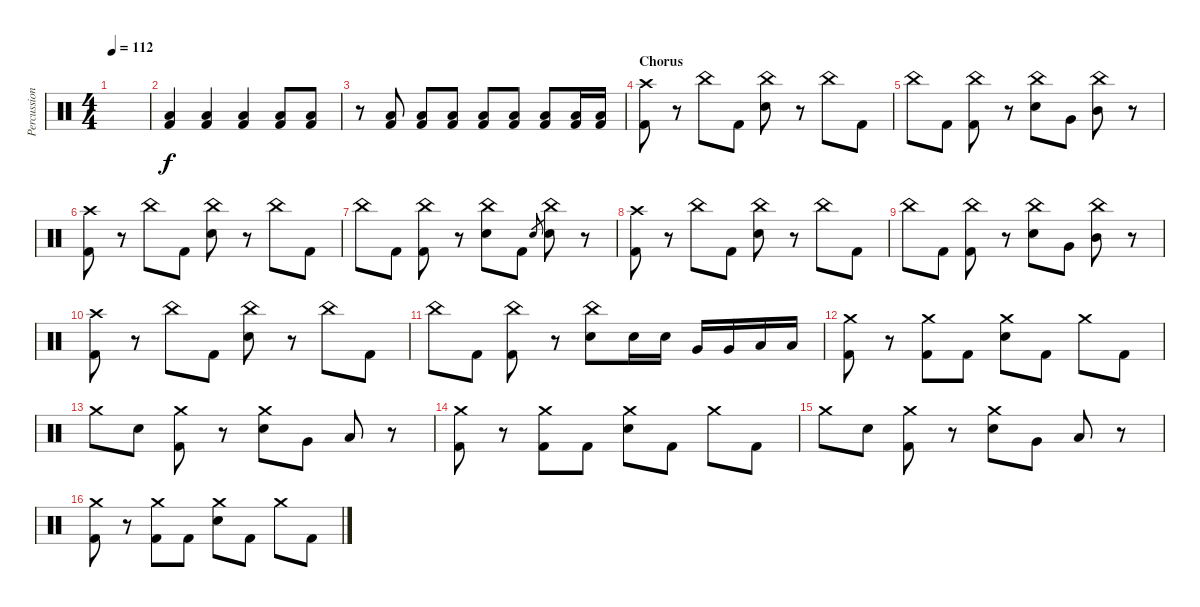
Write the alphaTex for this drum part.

\track ("Percussion" "Percussion") {instrument percussion}
\staff {score}
\articulation defaults
\ts (4 4)
\tempo 112
\clef neutral
\ks c
|
("Low Floor Tom (hit)" "Kick (hit) 2").4 ("Low Floor Tom (hit)" "Kick (hit) 2").4 ("Low Floor Tom (hit)" "Kick (hit) 2").4 ("Low Floor Tom (hit)" "Kick (hit) 2").8 ("Low Floor Tom (hit)" "Kick (hit) 2").8 |
r.8 ("Low Floor Tom (hit)" "Kick (hit) 2").8 ("Low Floor Tom (hit)" "Kick (hit) 2").8 ("Low Floor Tom (hit)" "Kick (hit) 2").8 ("Low Floor Tom (hit)" "Kick (hit) 2").8 ("Low Floor Tom (hit)" "Kick (hit) 2").8 ("Low Floor Tom (hit)" "Kick (hit) 2").8 ("Low Floor Tom (hit)" "Kick (hit) 2").16 ("Low Floor Tom (hit)" "Kick (hit) 2").16 |
\section ("" "Chorus")
("Crash high (hit)" "Kick (hit) 2").8 r.8 "China (hit)".8 "Kick (hit) 2".8 ("China (hit)" "Snare (hit) 2").8 r.8 "China (hit)".8 "Kick (hit) 2".8 |
"China (hit)".8 "Kick (hit) 2".8 ("China (hit)" "Kick (hit) 2").8 r.8 ("China (hit)" "Snare (hit) 2").8 "Very Low Tom (hit)".8 ("China (hit)" "Mid Tom (hit)").8 r.8 |
("Crash high (hit)" "Kick (hit) 2").8 r.8 "China (hit)".8 "Kick (hit) 2".8 ("China (hit)" "Snare (hit) 2").8 r.8 "China (hit)".8 "Kick (hit) 2".8 |
"China (hit)".8 "Kick (hit) 2".8 ("China (hit)" "Kick (hit) 2").8 r.8 ("China (hit)" "Snare (hit) 2").8 "Kick (hit) 2".8 "Snare (hit) 2".8{gr} ("China (hit)" "Snare (hit) 2").8 r.8 |
("Crash high (hit)" "Kick (hit) 2").8 r.8 "China (hit)".8 "Kick (hit) 2".8 ("China (hit)" "Snare (hit) 2").8 r.8 "China (hit)".8 "Kick (hit) 2".8 |
"China (hit)".8 "Kick (hit) 2".8 ("China (hit)" "Kick (hit) 2").8 r.8 ("China (hit)" "Snare (hit) 2").8 "Very Low Tom (hit)".8 ("China (hit)" "Mid Tom (hit)").8 r.8 |
("Crash high (hit)" "Kick (hit) 2").8 r.8 "China (hit)".8 "Kick (hit) 2".8 ("China (hit)" "Snare (hit) 2").8 r.8 "China (hit)".8 "Kick (hit) 2".8 |
"China (hit)".8 "Kick (hit) 2".8 ("China (hit)" "Kick (hit) 2").8 r.8 ("China (hit)" "Snare (hit) 2").8 "Snare (hit) 2".16 "Snare (hit) 2".16 "Very Low Tom (hit)".16 "Very Low Tom (hit)".16 "Low Floor Tom (hit)".16 "Low Floor Tom (hit)".16 |
("Crash medium (hit)" "Kick (hit) 2").8 r.8 ("Crash medium (hit)" "Kick (hit) 2").8 "Kick (hit) 2".8 ("Crash medium (hit)" "Snare (hit) 2").8 "Kick (hit) 2".8 "Crash medium (hit)".8 "Kick (hit) 2".8 |
"Crash medium (hit)".8 "Snare (hit) 2".8 ("Crash medium (hit)" "Kick (hit) 2").8 r.8 ("Crash medium (hit)" "Snare (hit) 2").8 "Very Low Tom (hit)".8 "Low Tom (hit)".8 r.8 |
("Crash medium (hit)" "Kick (hit) 2").8 r.8 ("Crash medium (hit)" "Kick (hit) 2").8 "Kick (hit) 2".8 ("Crash medium (hit)" "Snare (hit) 2").8 "Kick (hit) 2".8 "Crash medium (hit)".8 "Kick (hit) 2".8 |
"Crash medium (hit)".8 "Snare (hit) 2".8 ("Crash medium (hit)" "Kick (hit) 2").8 r.8 ("Crash medium (hit)" "Snare (hit) 2").8 "Very Low Tom (hit)".8 "Low Tom (hit)".8 r.8 |
("Crash medium (hit)" "Kick (hit) 2").8 r.8 ("Crash medium (hit)" "Kick (hit) 2").8 "Kick (hit) 2".8 ("Crash medium (hit)" "Snare (hit) 2").8 "Kick (hit) 2".8 "Crash medium (hit)".8 "Kick (hit) 2".8
